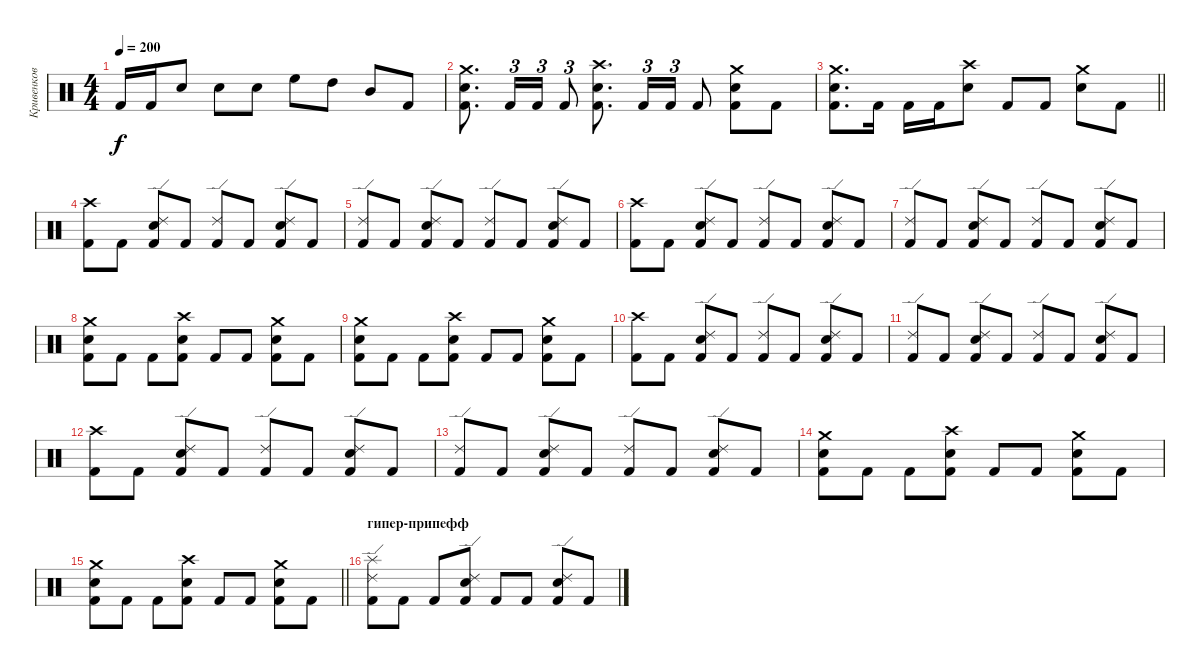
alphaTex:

\track ("Кривенков" "Кривенков") {instrument percussion}
\staff {score}
\articulation defaults
\ts (4 4)
\tempo 200
\clef neutral
\ks c "Kick (hit) 2".16{dy f} "Kick (hit) 2".16 "Electric Snare (hit)".8 "Electric Snare (hit)".8 "Electric Snare (hit)".8 "High Floor Tom (hit)".8 "High Tom (hit)".8 "Mid Tom (hit)".8 "Kick (hit) 2".8
|
("Crash medium (hit)" "Electric Snare (hit)" "Kick (hit) 2").8{d} "Kick (hit) 2".16{tu (3 2)} "Kick (hit) 2".16{tu (3 2)} "Kick (hit) 2".8{tu (3 2)} ("Crash high (hit)" "Electric Snare (hit)" "Kick (hit) 2").8{d} "Kick (hit) 2".16{tu (3 2)} "Kick (hit) 2".16{tu (3 2)} "Kick (hit) 2".8 ("Crash medium (hit)" "Electric Snare (hit)" "Kick (hit) 2").8 "Kick (hit) 2".8 |
\barLineRight lightlight
("Crash medium (hit)" "Electric Snare (hit)" "Kick (hit) 2").8{d} "Kick (hit) 2".16 "Kick (hit) 2".16 "Kick (hit) 2".16 ("Crash high (hit)" "Electric Snare (hit)").8 "Kick (hit) 2".8 "Kick (hit) 2".8 ("Crash medium (hit)" "Electric Snare (hit)").8 "Kick (hit) 2".8 |
("Crash high (hit)" "Kick (hit) 2").8 "Kick (hit) 2".8 ("Ride (edge) 2" "Electric Snare (hit)" "Kick (hit) 2").8 "Kick (hit) 2".8 ("Ride (edge) 2" "Kick (hit) 2").8 "Kick (hit) 2".8 ("Ride (edge) 2" "Electric Snare (hit)" "Kick (hit) 2").8 "Kick (hit) 2".8 |
("Ride (edge) 2" "Kick (hit) 2").8 "Kick (hit) 2".8 ("Ride (edge) 2" "Electric Snare (hit)" "Kick (hit) 2").8 "Kick (hit) 2".8 ("Ride (edge) 2" "Kick (hit) 2").8 "Kick (hit) 2".8 ("Ride (edge) 2" "Electric Snare (hit)" "Kick (hit) 2").8 "Kick (hit) 2".8 |
("Crash high (hit)" "Kick (hit) 2").8 "Kick (hit) 2".8 ("Ride (edge) 2" "Electric Snare (hit)" "Kick (hit) 2").8 "Kick (hit) 2".8 ("Ride (edge) 2" "Kick (hit) 2").8 "Kick (hit) 2".8 ("Ride (edge) 2" "Electric Snare (hit)" "Kick (hit) 2").8 "Kick (hit) 2".8 |
("Ride (edge) 2" "Kick (hit) 2").8 "Kick (hit) 2".8 ("Ride (edge) 2" "Electric Snare (hit)" "Kick (hit) 2").8 "Kick (hit) 2".8 ("Ride (edge) 2" "Kick (hit) 2").8 "Kick (hit) 2".8 ("Ride (edge) 2" "Electric Snare (hit)" "Kick (hit) 2").8 "Kick (hit) 2".8 |
("Crash medium (hit)" "Electric Snare (hit)" "Kick (hit) 2").8 "Kick (hit) 2".8 "Kick (hit) 2".8 ("Crash high (hit)" "Electric Snare (hit)" "Kick (hit) 2").8 "Kick (hit) 2".8 "Kick (hit) 2".8 ("Crash medium (hit)" "Electric Snare (hit)" "Kick (hit) 2").8 "Kick (hit) 2".8 |
("Crash medium (hit)" "Electric Snare (hit)" "Kick (hit) 2").8 "Kick (hit) 2".8 "Kick (hit) 2".8 ("Crash high (hit)" "Electric Snare (hit)" "Kick (hit) 2").8 "Kick (hit) 2".8 "Kick (hit) 2".8 ("Crash medium (hit)" "Electric Snare (hit)" "Kick (hit) 2").8 "Kick (hit) 2".8 |
("Crash high (hit)" "Kick (hit) 2").8 "Kick (hit) 2".8 ("Ride (edge) 2" "Electric Snare (hit)" "Kick (hit) 2").8 "Kick (hit) 2".8 ("Ride (edge) 2" "Kick (hit) 2").8 "Kick (hit) 2".8 ("Ride (edge) 2" "Electric Snare (hit)" "Kick (hit) 2").8 "Kick (hit) 2".8 |
("Ride (edge) 2" "Kick (hit) 2").8 "Kick (hit) 2".8 ("Ride (edge) 2" "Electric Snare (hit)" "Kick (hit) 2").8 "Kick (hit) 2".8 ("Ride (edge) 2" "Kick (hit) 2").8 "Kick (hit) 2".8 ("Ride (edge) 2" "Electric Snare (hit)" "Kick (hit) 2").8 "Kick (hit) 2".8 |
("Crash high (hit)" "Kick (hit) 2").8 "Kick (hit) 2".8 ("Ride (edge) 2" "Electric Snare (hit)" "Kick (hit) 2").8 "Kick (hit) 2".8 ("Ride (edge) 2" "Kick (hit) 2").8 "Kick (hit) 2".8 ("Ride (edge) 2" "Electric Snare (hit)" "Kick (hit) 2").8 "Kick (hit) 2".8 |
("Ride (edge) 2" "Kick (hit) 2").8 "Kick (hit) 2".8 ("Ride (edge) 2" "Electric Snare (hit)" "Kick (hit) 2").8 "Kick (hit) 2".8 ("Ride (edge) 2" "Kick (hit) 2").8 "Kick (hit) 2".8 ("Ride (edge) 2" "Electric Snare (hit)" "Kick (hit) 2").8 "Kick (hit) 2".8 |
("Crash medium (hit)" "Electric Snare (hit)" "Kick (hit) 2").8 "Kick (hit) 2".8 "Kick (hit) 2".8 ("Crash high (hit)" "Electric Snare (hit)" "Kick (hit) 2").8 "Kick (hit) 2".8 "Kick (hit) 2".8 ("Crash medium (hit)" "Electric Snare (hit)" "Kick (hit) 2").8 "Kick (hit) 2".8 |
\barLineRight lightlight
("Crash medium (hit)" "Electric Snare (hit)" "Kick (hit) 2").8 "Kick (hit) 2".8 "Kick (hit) 2".8 ("Crash high (hit)" "Electric Snare (hit)" "Kick (hit) 2").8 "Kick (hit) 2".8 "Kick (hit) 2".8 ("Crash medium (hit)" "Electric Snare (hit)" "Kick (hit) 2").8 "Kick (hit) 2".8 |
\section ("" "гипер-припефф")
("Splash (hit)" "Ride (edge) 2" "Kick (hit) 2").8 "Kick (hit) 2".8 "Kick (hit) 2".8 ("Ride (edge) 2" "Electric Snare (hit)" "Kick (hit) 2").8 "Kick (hit) 2".8 "Kick (hit) 2".8 ("Ride (edge) 2" "Electric Snare (hit)" "Kick (hit) 2").8 "Kick (hit) 2".8
